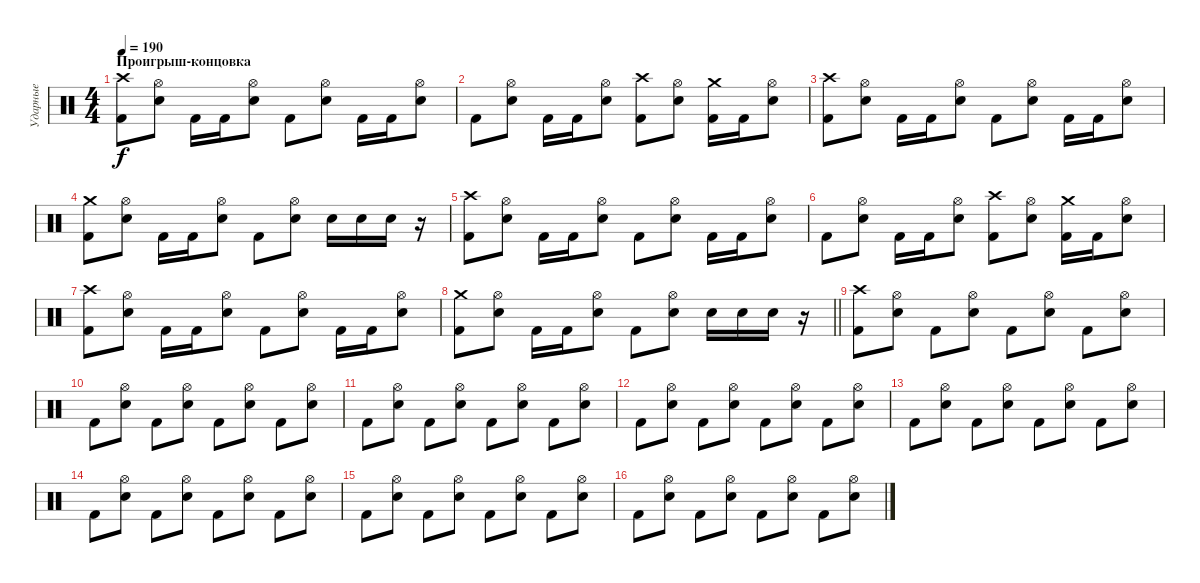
\track ("Ударные" "Ударные") {instrument percussion}
\staff {score}
\articulation defaults
\ts (4 4)
\section ("" "Проигрыш-концовка")
\tempo 190
\clef neutral
\ks c
("Crash high (hit)" "Kick (hit) 2").8{dy f} ("Hi-Hat (open)" "Electric Snare (hit)").8 "Kick (hit) 2".16 "Kick (hit) 2".16 ("Hi-Hat (open)" "Electric Snare (hit)").8 "Kick (hit) 2".8 ("Hi-Hat (open)" "Electric Snare (hit)").8 "Kick (hit) 2".16 "Kick (hit) 2".16 ("Hi-Hat (open)" "Electric Snare (hit)").8 |
"Kick (hit) 2".8 ("Hi-Hat (open)" "Electric Snare (hit)").8 "Kick (hit) 2".16 "Kick (hit) 2".16 ("Hi-Hat (open)" "Electric Snare (hit)").8 ("Crash high (hit)" "Kick (hit) 2").8 ("Hi-Hat (open)" "Electric Snare (hit)").8 ("Crash medium (hit)" "Kick (hit) 2").16 "Kick (hit) 2".16 ("Hi-Hat (open)" "Electric Snare (hit)").8 |
("Crash high (hit)" "Kick (hit) 2").8 ("Hi-Hat (open)" "Electric Snare (hit)").8 "Kick (hit) 2".16 "Kick (hit) 2".16 ("Hi-Hat (open)" "Electric Snare (hit)").8 "Kick (hit) 2".8 ("Hi-Hat (open)" "Electric Snare (hit)").8 "Kick (hit) 2".16 "Kick (hit) 2".16 ("Hi-Hat (open)" "Electric Snare (hit)").8 |
("Crash medium (hit)" "Kick (hit) 2").8 ("Hi-Hat (open)" "Electric Snare (hit)").8 "Kick (hit) 2".16 "Kick (hit) 2".16 ("Hi-Hat (open)" "Electric Snare (hit)").8 "Kick (hit) 2".8 ("Hi-Hat (open)" "Electric Snare (hit)").8 "Electric Snare (hit)".16 "Electric Snare (hit)".16 "Electric Snare (hit)".16 r.16 |
("Crash high (hit)" "Kick (hit) 2").8 ("Hi-Hat (open)" "Electric Snare (hit)").8 "Kick (hit) 2".16 "Kick (hit) 2".16 ("Hi-Hat (open)" "Electric Snare (hit)").8 "Kick (hit) 2".8 ("Hi-Hat (open)" "Electric Snare (hit)").8 "Kick (hit) 2".16 "Kick (hit) 2".16 ("Hi-Hat (open)" "Electric Snare (hit)").8 |
"Kick (hit) 2".8 ("Hi-Hat (open)" "Electric Snare (hit)").8 "Kick (hit) 2".16 "Kick (hit) 2".16 ("Hi-Hat (open)" "Electric Snare (hit)").8 ("Crash high (hit)" "Kick (hit) 2").8 ("Hi-Hat (open)" "Electric Snare (hit)").8 ("Crash medium (hit)" "Kick (hit) 2").16 "Kick (hit) 2".16 ("Hi-Hat (open)" "Electric Snare (hit)").8 |
("Crash high (hit)" "Kick (hit) 2").8 ("Hi-Hat (open)" "Electric Snare (hit)").8 "Kick (hit) 2".16 "Kick (hit) 2".16 ("Hi-Hat (open)" "Electric Snare (hit)").8 "Kick (hit) 2".8 ("Hi-Hat (open)" "Electric Snare (hit)").8 "Kick (hit) 2".16 "Kick (hit) 2".16 ("Hi-Hat (open)" "Electric Snare (hit)").8 |
\barLineRight lightlight
("Crash medium (hit)" "Kick (hit) 2").8 ("Hi-Hat (open)" "Electric Snare (hit)").8 "Kick (hit) 2".16 "Kick (hit) 2".16 ("Hi-Hat (open)" "Electric Snare (hit)").8 "Kick (hit) 2".8 ("Hi-Hat (open)" "Electric Snare (hit)").8 "Electric Snare (hit)".16 "Electric Snare (hit)".16 "Electric Snare (hit)".16 r.16 |
("Crash high (hit)" "Kick (hit) 2").8 ("Hi-Hat (open)" "Electric Snare (hit)").8 "Kick (hit) 2".8 ("Hi-Hat (open)" "Electric Snare (hit)").8 "Kick (hit) 2".8 ("Hi-Hat (open)" "Electric Snare (hit)").8 "Kick (hit) 2".8 ("Hi-Hat (open)" "Electric Snare (hit)").8 |
"Kick (hit) 2".8 ("Hi-Hat (open)" "Electric Snare (hit)").8 "Kick (hit) 2".8 ("Hi-Hat (open)" "Electric Snare (hit)").8 "Kick (hit) 2".8 ("Hi-Hat (open)" "Electric Snare (hit)").8 "Kick (hit) 2".8 ("Hi-Hat (open)" "Electric Snare (hit)").8 |
"Kick (hit) 2".8 ("Hi-Hat (open)" "Electric Snare (hit)").8 "Kick (hit) 2".8 ("Hi-Hat (open)" "Electric Snare (hit)").8 "Kick (hit) 2".8 ("Hi-Hat (open)" "Electric Snare (hit)").8 "Kick (hit) 2".8 ("Hi-Hat (open)" "Electric Snare (hit)").8 |
"Kick (hit) 2".8 ("Hi-Hat (open)" "Electric Snare (hit)").8 "Kick (hit) 2".8 ("Hi-Hat (open)" "Electric Snare (hit)").8 "Kick (hit) 2".8 ("Hi-Hat (open)" "Electric Snare (hit)").8 "Kick (hit) 2".8 ("Hi-Hat (open)" "Electric Snare (hit)").8 |
"Kick (hit) 2".8 ("Hi-Hat (open)" "Electric Snare (hit)").8 "Kick (hit) 2".8 ("Hi-Hat (open)" "Electric Snare (hit)").8 "Kick (hit) 2".8 ("Hi-Hat (open)" "Electric Snare (hit)").8 "Kick (hit) 2".8 ("Hi-Hat (open)" "Electric Snare (hit)").8 |
"Kick (hit) 2".8 ("Hi-Hat (open)" "Electric Snare (hit)").8 "Kick (hit) 2".8 ("Hi-Hat (open)" "Electric Snare (hit)").8 "Kick (hit) 2".8 ("Hi-Hat (open)" "Electric Snare (hit)").8 "Kick (hit) 2".8 ("Hi-Hat (open)" "Electric Snare (hit)").8 |
"Kick (hit) 2".8 ("Hi-Hat (open)" "Electric Snare (hit)").8 "Kick (hit) 2".8 ("Hi-Hat (open)" "Electric Snare (hit)").8 "Kick (hit) 2".8 ("Hi-Hat (open)" "Electric Snare (hit)").8 "Kick (hit) 2".8 ("Hi-Hat (open)" "Electric Snare (hit)").8 |
"Kick (hit) 2".8 ("Hi-Hat (open)" "Electric Snare (hit)").8 "Kick (hit) 2".8 ("Hi-Hat (open)" "Electric Snare (hit)").8 "Kick (hit) 2".8 ("Hi-Hat (open)" "Electric Snare (hit)").8 "Kick (hit) 2".8 ("Hi-Hat (open)" "Electric Snare (hit)").8
